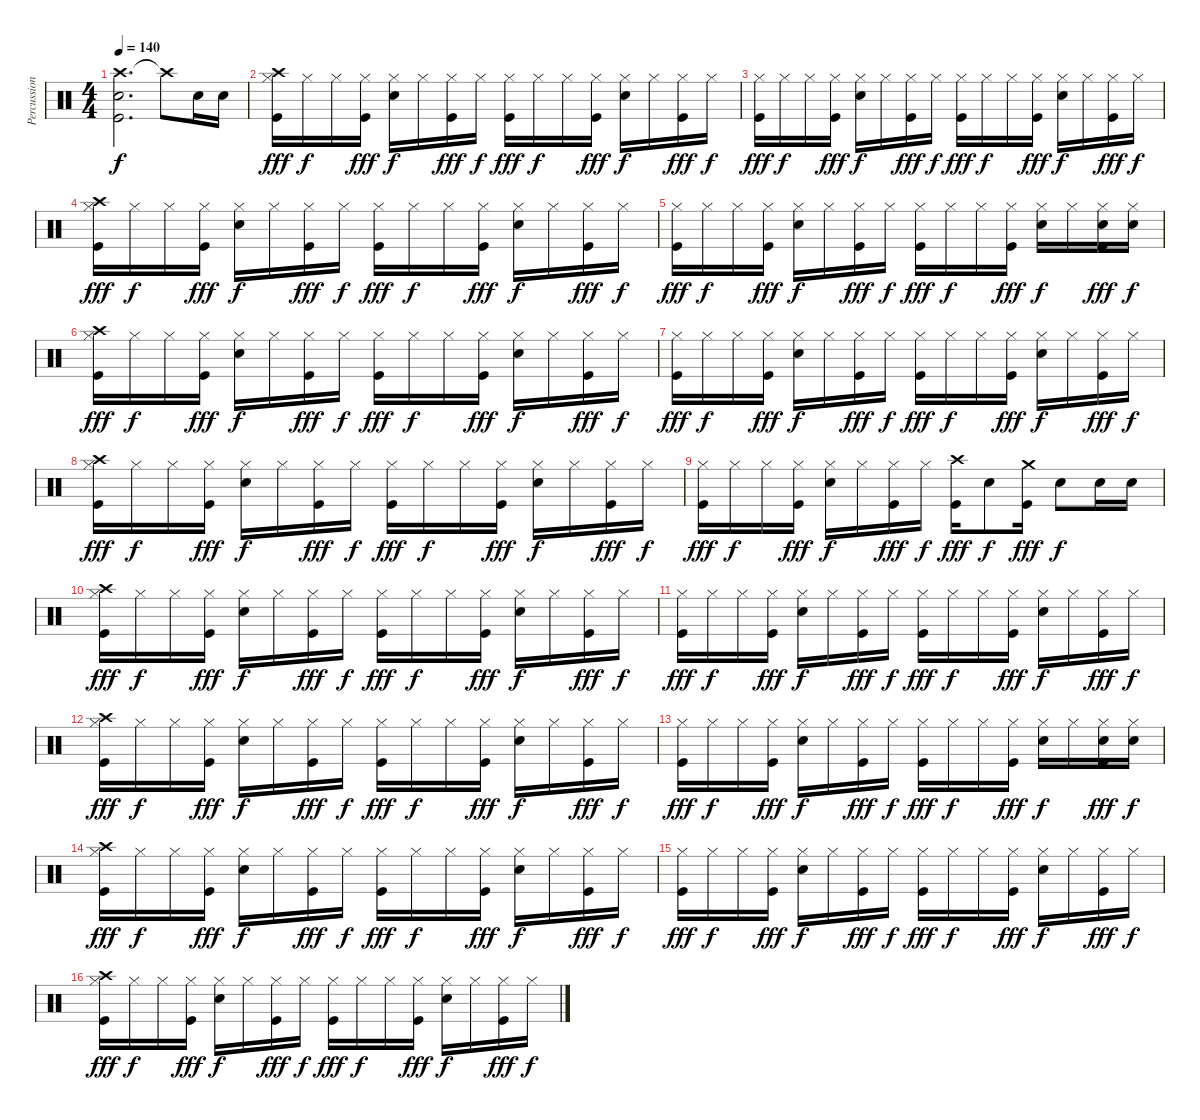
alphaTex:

\track ("Percussion" "Percussion") {instrument percussion}
\staff {score}
\articulation defaults
\ts (4 4)
\tempo 140
\clef neutral
\ks c
("Crash high (hit)" "Snare (hit) 2" "Kick (hit)").2{d dy f} "Crash high (hit)"{t}.8 "Snare (hit) 2".16 "Snare (hit) 2".16 |
("Hi-Hat (closed)" "Crash high (hit)" "Kick (hit)").16{dy fff} "Hi-Hat (closed)".16{dy f} "Hi-Hat (closed)".16 ("Hi-Hat (closed)" "Kick (hit)").16{dy fff} ("Hi-Hat (closed)" "Snare (hit) 2").16{dy f} "Hi-Hat (closed)".16 ("Hi-Hat (closed)" "Kick (hit)").16{dy fff} "Hi-Hat (closed)".16{dy f} ("Hi-Hat (closed)" "Kick (hit)").16{dy fff} "Hi-Hat (closed)".16{dy f} "Hi-Hat (closed)".16 ("Hi-Hat (closed)" "Kick (hit)").16{dy fff} ("Hi-Hat (closed)" "Snare (hit) 2").16{dy f} "Hi-Hat (closed)".16 ("Hi-Hat (closed)" "Kick (hit)").16{dy fff} "Hi-Hat (closed)".16{dy f} |
("Hi-Hat (closed)" "Kick (hit)").16{dy fff} "Hi-Hat (closed)".16{dy f} "Hi-Hat (closed)".16 ("Hi-Hat (closed)" "Kick (hit)").16{dy fff} ("Hi-Hat (closed)" "Snare (hit) 2").16{dy f} "Hi-Hat (closed)".16 ("Hi-Hat (closed)" "Kick (hit)").16{dy fff} "Hi-Hat (closed)".16{dy f} ("Hi-Hat (closed)" "Kick (hit)").16{dy fff} "Hi-Hat (closed)".16{dy f} "Hi-Hat (closed)".16 ("Hi-Hat (closed)" "Kick (hit)").16{dy fff} ("Hi-Hat (closed)" "Snare (hit) 2").16{dy f} "Hi-Hat (closed)".16 ("Hi-Hat (closed)" "Kick (hit)").16{dy fff} "Hi-Hat (closed)".16{dy f} |
("Hi-Hat (closed)" "Crash high (hit)" "Kick (hit)").16{dy fff} "Hi-Hat (closed)".16{dy f} "Hi-Hat (closed)".16 ("Hi-Hat (closed)" "Kick (hit)").16{dy fff} ("Hi-Hat (closed)" "Snare (hit) 2").16{dy f} "Hi-Hat (closed)".16 ("Hi-Hat (closed)" "Kick (hit)").16{dy fff} "Hi-Hat (closed)".16{dy f} ("Hi-Hat (closed)" "Kick (hit)").16{dy fff} "Hi-Hat (closed)".16{dy f} "Hi-Hat (closed)".16 ("Hi-Hat (closed)" "Kick (hit)").16{dy fff} ("Hi-Hat (closed)" "Snare (hit) 2").16{dy f} "Hi-Hat (closed)".16 ("Hi-Hat (closed)" "Kick (hit)").16{dy fff} "Hi-Hat (closed)".16{dy f} |
("Hi-Hat (closed)" "Kick (hit)").16{dy fff} "Hi-Hat (closed)".16{dy f} "Hi-Hat (closed)".16 ("Hi-Hat (closed)" "Kick (hit)").16{dy fff} ("Hi-Hat (closed)" "Snare (hit) 2").16{dy f} "Hi-Hat (closed)".16 ("Hi-Hat (closed)" "Kick (hit)").16{dy fff} "Hi-Hat (closed)".16{dy f} ("Hi-Hat (closed)" "Kick (hit)").16{dy fff} "Hi-Hat (closed)".16{dy f} "Hi-Hat (closed)".16 ("Hi-Hat (closed)" "Kick (hit)").16{dy fff} ("Hi-Hat (closed)" "Snare (hit) 2").16{dy f} "Hi-Hat (closed)".16 ("Hi-Hat (closed)" "Snare (hit) 2" "Kick (hit)").16{dy fff} ("Hi-Hat (closed)" "Snare (hit) 2").16{dy f} |
("Hi-Hat (closed)" "Crash high (hit)" "Kick (hit)").16{dy fff} "Hi-Hat (closed)".16{dy f} "Hi-Hat (closed)".16 ("Hi-Hat (closed)" "Kick (hit)").16{dy fff} ("Hi-Hat (closed)" "Snare (hit) 2").16{dy f} "Hi-Hat (closed)".16 ("Hi-Hat (closed)" "Kick (hit)").16{dy fff} "Hi-Hat (closed)".16{dy f} ("Hi-Hat (closed)" "Kick (hit)").16{dy fff} "Hi-Hat (closed)".16{dy f} "Hi-Hat (closed)".16 ("Hi-Hat (closed)" "Kick (hit)").16{dy fff} ("Hi-Hat (closed)" "Snare (hit) 2").16{dy f} "Hi-Hat (closed)".16 ("Hi-Hat (closed)" "Kick (hit)").16{dy fff} "Hi-Hat (closed)".16{dy f} |
("Hi-Hat (closed)" "Kick (hit)").16{dy fff} "Hi-Hat (closed)".16{dy f} "Hi-Hat (closed)".16 ("Hi-Hat (closed)" "Kick (hit)").16{dy fff} ("Hi-Hat (closed)" "Snare (hit) 2").16{dy f} "Hi-Hat (closed)".16 ("Hi-Hat (closed)" "Kick (hit)").16{dy fff} "Hi-Hat (closed)".16{dy f} ("Hi-Hat (closed)" "Kick (hit)").16{dy fff} "Hi-Hat (closed)".16{dy f} "Hi-Hat (closed)".16 ("Hi-Hat (closed)" "Kick (hit)").16{dy fff} ("Hi-Hat (closed)" "Snare (hit) 2").16{dy f} "Hi-Hat (closed)".16 ("Hi-Hat (closed)" "Kick (hit)").16{dy fff} "Hi-Hat (closed)".16{dy f} |
("Hi-Hat (closed)" "Crash high (hit)" "Kick (hit)").16{dy fff} "Hi-Hat (closed)".16{dy f} "Hi-Hat (closed)".16 ("Hi-Hat (closed)" "Kick (hit)").16{dy fff} ("Hi-Hat (closed)" "Snare (hit) 2").16{dy f} "Hi-Hat (closed)".16 ("Hi-Hat (closed)" "Kick (hit)").16{dy fff} "Hi-Hat (closed)".16{dy f} ("Hi-Hat (closed)" "Kick (hit)").16{dy fff} "Hi-Hat (closed)".16{dy f} "Hi-Hat (closed)".16 ("Hi-Hat (closed)" "Kick (hit)").16{dy fff} ("Hi-Hat (closed)" "Snare (hit) 2").16{dy f} "Hi-Hat (closed)".16 ("Hi-Hat (closed)" "Kick (hit)").16{dy fff} "Hi-Hat (closed)".16{dy f} |
("Hi-Hat (closed)" "Kick (hit)").16{dy fff} "Hi-Hat (closed)".16{dy f} "Hi-Hat (closed)".16 ("Hi-Hat (closed)" "Kick (hit)").16{dy fff} ("Hi-Hat (closed)" "Snare (hit) 2").16{dy f} "Hi-Hat (closed)".16 ("Hi-Hat (closed)" "Kick (hit)").16{dy fff} "Hi-Hat (closed)".16{dy f} ("Crash high (hit)" "Kick (hit)").16{dy fff} "Snare (hit) 2".8{dy f} ("Crash medium (hit)" "Kick (hit)").16{dy fff} "Snare (hit) 2".8{dy f} "Snare (hit) 2".16 "Snare (hit) 2".16 |
("Hi-Hat (closed)" "Crash high (hit)" "Kick (hit)").16{dy fff} "Hi-Hat (closed)".16{dy f} "Hi-Hat (closed)".16 ("Hi-Hat (closed)" "Kick (hit)").16{dy fff} ("Hi-Hat (closed)" "Snare (hit) 2").16{dy f} "Hi-Hat (closed)".16 ("Hi-Hat (closed)" "Kick (hit)").16{dy fff} "Hi-Hat (closed)".16{dy f} ("Hi-Hat (closed)" "Kick (hit)").16{dy fff} "Hi-Hat (closed)".16{dy f} "Hi-Hat (closed)".16 ("Hi-Hat (closed)" "Kick (hit)").16{dy fff} ("Hi-Hat (closed)" "Snare (hit) 2").16{dy f} "Hi-Hat (closed)".16 ("Hi-Hat (closed)" "Kick (hit)").16{dy fff} "Hi-Hat (closed)".16{dy f} |
("Hi-Hat (closed)" "Kick (hit)").16{dy fff} "Hi-Hat (closed)".16{dy f} "Hi-Hat (closed)".16 ("Hi-Hat (closed)" "Kick (hit)").16{dy fff} ("Hi-Hat (closed)" "Snare (hit) 2").16{dy f} "Hi-Hat (closed)".16 ("Hi-Hat (closed)" "Kick (hit)").16{dy fff} "Hi-Hat (closed)".16{dy f} ("Hi-Hat (closed)" "Kick (hit)").16{dy fff} "Hi-Hat (closed)".16{dy f} "Hi-Hat (closed)".16 ("Hi-Hat (closed)" "Kick (hit)").16{dy fff} ("Hi-Hat (closed)" "Snare (hit) 2").16{dy f} "Hi-Hat (closed)".16 ("Hi-Hat (closed)" "Kick (hit)").16{dy fff} "Hi-Hat (closed)".16{dy f} |
("Hi-Hat (closed)" "Crash high (hit)" "Kick (hit)").16{dy fff} "Hi-Hat (closed)".16{dy f} "Hi-Hat (closed)".16 ("Hi-Hat (closed)" "Kick (hit)").16{dy fff} ("Hi-Hat (closed)" "Snare (hit) 2").16{dy f} "Hi-Hat (closed)".16 ("Hi-Hat (closed)" "Kick (hit)").16{dy fff} "Hi-Hat (closed)".16{dy f} ("Hi-Hat (closed)" "Kick (hit)").16{dy fff} "Hi-Hat (closed)".16{dy f} "Hi-Hat (closed)".16 ("Hi-Hat (closed)" "Kick (hit)").16{dy fff} ("Hi-Hat (closed)" "Snare (hit) 2").16{dy f} "Hi-Hat (closed)".16 ("Hi-Hat (closed)" "Kick (hit)").16{dy fff} "Hi-Hat (closed)".16{dy f} |
("Hi-Hat (closed)" "Kick (hit)").16{dy fff} "Hi-Hat (closed)".16{dy f} "Hi-Hat (closed)".16 ("Hi-Hat (closed)" "Kick (hit)").16{dy fff} ("Hi-Hat (closed)" "Snare (hit) 2").16{dy f} "Hi-Hat (closed)".16 ("Hi-Hat (closed)" "Kick (hit)").16{dy fff} "Hi-Hat (closed)".16{dy f} ("Hi-Hat (closed)" "Kick (hit)").16{dy fff} "Hi-Hat (closed)".16{dy f} "Hi-Hat (closed)".16 ("Hi-Hat (closed)" "Kick (hit)").16{dy fff} ("Hi-Hat (closed)" "Snare (hit) 2").16{dy f} "Hi-Hat (closed)".16 ("Hi-Hat (closed)" "Snare (hit) 2" "Kick (hit)").16{dy fff} ("Hi-Hat (closed)" "Snare (hit) 2").16{dy f} |
("Hi-Hat (closed)" "Crash high (hit)" "Kick (hit)").16{dy fff} "Hi-Hat (closed)".16{dy f} "Hi-Hat (closed)".16 ("Hi-Hat (closed)" "Kick (hit)").16{dy fff} ("Hi-Hat (closed)" "Snare (hit) 2").16{dy f} "Hi-Hat (closed)".16 ("Hi-Hat (closed)" "Kick (hit)").16{dy fff} "Hi-Hat (closed)".16{dy f} ("Hi-Hat (closed)" "Kick (hit)").16{dy fff} "Hi-Hat (closed)".16{dy f} "Hi-Hat (closed)".16 ("Hi-Hat (closed)" "Kick (hit)").16{dy fff} ("Hi-Hat (closed)" "Snare (hit) 2").16{dy f} "Hi-Hat (closed)".16 ("Hi-Hat (closed)" "Kick (hit)").16{dy fff} "Hi-Hat (closed)".16{dy f} |
("Hi-Hat (closed)" "Kick (hit)").16{dy fff} "Hi-Hat (closed)".16{dy f} "Hi-Hat (closed)".16 ("Hi-Hat (closed)" "Kick (hit)").16{dy fff} ("Hi-Hat (closed)" "Snare (hit) 2").16{dy f} "Hi-Hat (closed)".16 ("Hi-Hat (closed)" "Kick (hit)").16{dy fff} "Hi-Hat (closed)".16{dy f} ("Hi-Hat (closed)" "Kick (hit)").16{dy fff} "Hi-Hat (closed)".16{dy f} "Hi-Hat (closed)".16 ("Hi-Hat (closed)" "Kick (hit)").16{dy fff} ("Hi-Hat (closed)" "Snare (hit) 2").16{dy f} "Hi-Hat (closed)".16 ("Hi-Hat (closed)" "Kick (hit)").16{dy fff} "Hi-Hat (closed)".16{dy f} |
("Hi-Hat (closed)" "Crash high (hit)" "Kick (hit)").16{dy fff} "Hi-Hat (closed)".16{dy f} "Hi-Hat (closed)".16 ("Hi-Hat (closed)" "Kick (hit)").16{dy fff} ("Hi-Hat (closed)" "Snare (hit) 2").16{dy f} "Hi-Hat (closed)".16 ("Hi-Hat (closed)" "Kick (hit)").16{dy fff} "Hi-Hat (closed)".16{dy f} ("Hi-Hat (closed)" "Kick (hit)").16{dy fff} "Hi-Hat (closed)".16{dy f} "Hi-Hat (closed)".16 ("Hi-Hat (closed)" "Kick (hit)").16{dy fff} ("Hi-Hat (closed)" "Snare (hit) 2").16{dy f} "Hi-Hat (closed)".16 ("Hi-Hat (closed)" "Kick (hit)").16{dy fff} "Hi-Hat (closed)".16{dy f}
